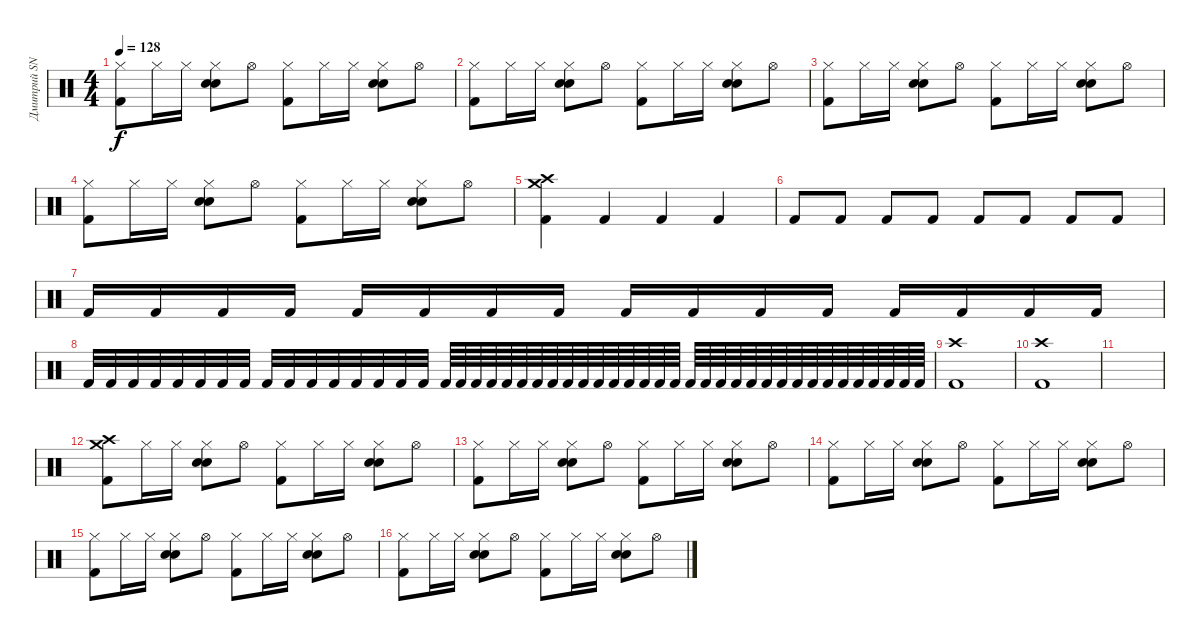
\track ("Дмитрий SNAKE Хакимов" "Дмитрий SN") {instrument percussion}
\staff {score}
\articulation defaults
\ts (4 4)
\tempo 128
\clef neutral
\ks c
("Hi-Hat (closed)" "Kick (hit) 2").8{dy f} "Hi-Hat (closed)".16 "Hi-Hat (closed)".16 ("Hi-Hat (closed)" "Snare (hit) 2" "Hand Clap (hit)").8 "Hi-Hat (open)".8 ("Hi-Hat (closed)" "Kick (hit) 2").8 "Hi-Hat (closed)".16 "Hi-Hat (closed)".16 ("Hi-Hat (closed)" "Snare (hit) 2" "Hand Clap (hit)").8 "Hi-Hat (open)".8 |
("Hi-Hat (closed)" "Kick (hit) 2").8 "Hi-Hat (closed)".16 "Hi-Hat (closed)".16 ("Hi-Hat (closed)" "Snare (hit) 2" "Hand Clap (hit)").8 "Hi-Hat (open)".8 ("Hi-Hat (closed)" "Kick (hit) 2").8 "Hi-Hat (closed)".16 "Hi-Hat (closed)".16 ("Hi-Hat (closed)" "Snare (hit) 2" "Hand Clap (hit)").8 "Hi-Hat (open)".8 |
("Hi-Hat (closed)" "Kick (hit) 2").8 "Hi-Hat (closed)".16 "Hi-Hat (closed)".16 ("Hi-Hat (closed)" "Snare (hit) 2" "Hand Clap (hit)").8 "Hi-Hat (open)".8 ("Hi-Hat (closed)" "Kick (hit) 2").8 "Hi-Hat (closed)".16 "Hi-Hat (closed)".16 ("Hi-Hat (closed)" "Snare (hit) 2" "Hand Clap (hit)").8 "Hi-Hat (open)".8 |
("Hi-Hat (closed)" "Kick (hit) 2").8 "Hi-Hat (closed)".16 "Hi-Hat (closed)".16 ("Hi-Hat (closed)" "Snare (hit) 2" "Hand Clap (hit)").8 "Hi-Hat (open)".8 ("Hi-Hat (closed)" "Kick (hit) 2").8 "Hi-Hat (closed)".16 "Hi-Hat (closed)".16 ("Hi-Hat (closed)" "Snare (hit) 2" "Hand Clap (hit)").8 "Hi-Hat (open)".8 |
("Crash high (hit)" "Crash medium (hit)" "Kick (hit) 2").4 "Kick (hit) 2".4 "Kick (hit) 2".4 "Kick (hit) 2".4 |
"Kick (hit) 2".8 "Kick (hit) 2".8 "Kick (hit) 2".8 "Kick (hit) 2".8 "Kick (hit) 2".8 "Kick (hit) 2".8 "Kick (hit) 2".8 "Kick (hit) 2".8 |
"Kick (hit) 2".16 "Kick (hit) 2".16 "Kick (hit) 2".16 "Kick (hit) 2".16 "Kick (hit) 2".16 "Kick (hit) 2".16 "Kick (hit) 2".16 "Kick (hit) 2".16 "Kick (hit) 2".16 "Kick (hit) 2".16 "Kick (hit) 2".16 "Kick (hit) 2".16 "Kick (hit) 2".16 "Kick (hit) 2".16 "Kick (hit) 2".16 "Kick (hit) 2".16 |
"Kick (hit) 2".32 "Kick (hit) 2".32 "Kick (hit) 2".32 "Kick (hit) 2".32 "Kick (hit) 2".32 "Kick (hit) 2".32 "Kick (hit) 2".32 "Kick (hit) 2".32 "Kick (hit) 2".32 "Kick (hit) 2".32 "Kick (hit) 2".32 "Kick (hit) 2".32 "Kick (hit) 2".32 "Kick (hit) 2".32 "Kick (hit) 2".32 "Kick (hit) 2".32 "Kick (hit) 2".64 "Kick (hit) 2".64 "Kick (hit) 2".64 "Kick (hit) 2".64 "Kick (hit) 2".64 "Kick (hit) 2".64 "Kick (hit) 2".64 "Kick (hit) 2".64 "Kick (hit) 2".64 "Kick (hit) 2".64 "Kick (hit) 2".64 "Kick (hit) 2".64 "Kick (hit) 2".64 "Kick (hit) 2".64 "Kick (hit) 2".64 "Kick (hit) 2".64 "Kick (hit) 2".64 "Kick (hit) 2".64 "Kick (hit) 2".64 "Kick (hit) 2".64 "Kick (hit) 2".64 "Kick (hit) 2".64 "Kick (hit) 2".64 "Kick (hit) 2".64 "Kick (hit) 2".64 "Kick (hit) 2".64 "Kick (hit) 2".64 "Kick (hit) 2".64 "Kick (hit) 2".64 "Kick (hit) 2".64 "Kick (hit) 2".64 "Kick (hit) 2".64 |
("Crash high (hit)" "Kick (hit) 2").1 |
("Crash high (hit)" "Kick (hit) 2").1 |
|
("Crash high (hit)" "Crash medium (hit)" "Kick (hit) 2").8 "Hi-Hat (closed)".16 "Hi-Hat (closed)".16 ("Hi-Hat (closed)" "Snare (hit) 2" "Hand Clap (hit)").8 "Hi-Hat (open)".8 ("Hi-Hat (closed)" "Kick (hit) 2").8 "Hi-Hat (closed)".16 "Hi-Hat (closed)".16 ("Hi-Hat (closed)" "Snare (hit) 2" "Hand Clap (hit)").8 "Hi-Hat (open)".8 |
("Hi-Hat (closed)" "Kick (hit) 2").8 "Hi-Hat (closed)".16 "Hi-Hat (closed)".16 ("Hi-Hat (closed)" "Snare (hit) 2" "Hand Clap (hit)").8 "Hi-Hat (open)".8 ("Hi-Hat (closed)" "Kick (hit) 2").8 "Hi-Hat (closed)".16 "Hi-Hat (closed)".16 ("Hi-Hat (closed)" "Snare (hit) 2" "Hand Clap (hit)").8 "Hi-Hat (open)".8 |
("Hi-Hat (closed)" "Kick (hit) 2").8 "Hi-Hat (closed)".16 "Hi-Hat (closed)".16 ("Hi-Hat (closed)" "Snare (hit) 2" "Hand Clap (hit)").8 "Hi-Hat (open)".8 ("Hi-Hat (closed)" "Kick (hit) 2").8 "Hi-Hat (closed)".16 "Hi-Hat (closed)".16 ("Hi-Hat (closed)" "Snare (hit) 2" "Hand Clap (hit)").8 "Hi-Hat (open)".8 |
("Hi-Hat (closed)" "Kick (hit) 2").8 "Hi-Hat (closed)".16 "Hi-Hat (closed)".16 ("Hi-Hat (closed)" "Snare (hit) 2" "Hand Clap (hit)").8 "Hi-Hat (open)".8 ("Hi-Hat (closed)" "Kick (hit) 2").8 "Hi-Hat (closed)".16 "Hi-Hat (closed)".16 ("Hi-Hat (closed)" "Snare (hit) 2" "Hand Clap (hit)").8 "Hi-Hat (open)".8 |
("Hi-Hat (closed)" "Kick (hit) 2").8 "Hi-Hat (closed)".16 "Hi-Hat (closed)".16 ("Hi-Hat (closed)" "Snare (hit) 2" "Hand Clap (hit)").8 "Hi-Hat (open)".8 ("Hi-Hat (closed)" "Kick (hit) 2").8 "Hi-Hat (closed)".16 "Hi-Hat (closed)".16 ("Hi-Hat (closed)" "Snare (hit) 2" "Hand Clap (hit)").8 "Hi-Hat (open)".8
